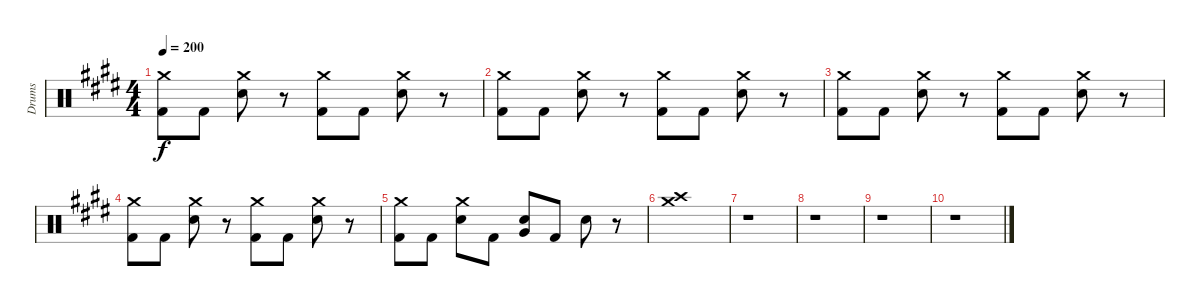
\track ("Drums" "Drums") {instrument percussion}
\staff {score}
\articulation defaults
\ts (4 4)
\tempo 200
\clef neutral
\ks c#minor
("Crash medium (hit)" "Kick (hit) 2").8{dy f} "Kick (hit) 2".8 ("Crash medium (hit)" "Electric Snare (hit)").8 r.8 ("Crash medium (hit)" "Kick (hit) 2").8 "Kick (hit) 2".8 ("Crash medium (hit)" "Electric Snare (hit)").8 r.8 |
("Crash medium (hit)" "Kick (hit) 2").8 "Kick (hit) 2".8 ("Crash medium (hit)" "Electric Snare (hit)").8 r.8 ("Crash medium (hit)" "Kick (hit) 2").8 "Kick (hit) 2".8 ("Crash medium (hit)" "Electric Snare (hit)").8 r.8 |
("Crash medium (hit)" "Kick (hit) 2").8 "Kick (hit) 2".8 ("Crash medium (hit)" "Electric Snare (hit)").8 r.8 ("Crash medium (hit)" "Kick (hit) 2").8 "Kick (hit) 2".8 ("Crash medium (hit)" "Electric Snare (hit)").8 r.8 |
("Crash medium (hit)" "Kick (hit) 2").8 "Kick (hit) 2".8 ("Crash medium (hit)" "Electric Snare (hit)").8 r.8 ("Crash medium (hit)" "Kick (hit) 2").8 "Kick (hit) 2".8 ("Crash medium (hit)" "Electric Snare (hit)").8 r.8 |
("Crash medium (hit)" "Kick (hit) 2").8 "Kick (hit) 2".8 ("Crash medium (hit)" "Electric Snare (hit)").8 "Kick (hit) 2".8 ("Electric Snare (hit)" "Very Low Tom (hit)").8 "Kick (hit) 2".8 "Electric Snare (hit)".8 r.8 |
("Crash medium (hit)" "Crash high (hit)").1 |
r.1 |
r.1 |
r.1 |
r.1
